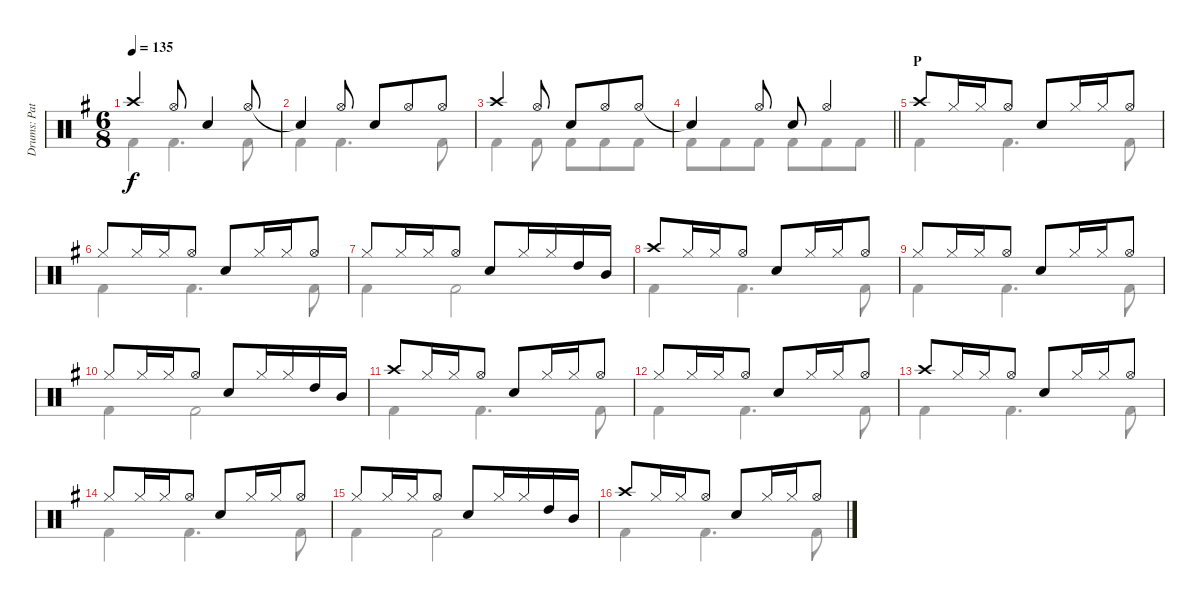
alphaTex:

\track ("Drums: Pat" "Drums: Pat") {instrument percussion}
\staff {score}
\articulation defaults
\voice
\ts (6 8)
\tempo 135
\clef neutral
\ks g "Crash high (hit)".4{dy f} "Hi-Hat (open)".8 "Snare (hit) 2".4 "Hi-Hat (open)".8
|
"Snare (hit)"{t}.4 "Hi-Hat (open)".8 "Snare (hit) 2".8 "Hi-Hat (open)".8 "Hi-Hat (open)".8 |
"Crash high (hit)".4 "Hi-Hat (open)".8 "Snare (hit) 2".8 "Hi-Hat (open)".8 "Hi-Hat (open)".8 |
\barLineRight lightlight "Snare (hit)"{t}.4 "Hi-Hat (open)".8 "Snare (hit) 2".8 "Hi-Hat (open)".4
|
\section ("" "P")
"Crash high (hit)".8 "Hi-Hat (closed)".16 "Hi-Hat (closed)".16 "Hi-Hat (open)".8 "Snare (hit) 2".8 "Hi-Hat (closed)".16 "Hi-Hat (closed)".16 "Hi-Hat (open)".8 |
"Hi-Hat (closed)".8 "Hi-Hat (closed)".16 "Hi-Hat (closed)".16 "Hi-Hat (open)".8 "Snare (hit) 2".8 "Hi-Hat (closed)".16 "Hi-Hat (closed)".16 "Hi-Hat (open)".8 |
"Hi-Hat (closed)".8 "Hi-Hat (closed)".16 "Hi-Hat (closed)".16 "Hi-Hat (open)".8 "Snare (hit) 2".8 "Hi-Hat (closed)".16 "Hi-Hat (closed)".16 "High Tom (hit)".16 "Mid Tom (hit)".16 |
"Crash high (hit)".8 "Hi-Hat (closed)".16 "Hi-Hat (closed)".16 "Hi-Hat (open)".8 "Snare (hit) 2".8 "Hi-Hat (closed)".16 "Hi-Hat (closed)".16 "Hi-Hat (open)".8 |
"Hi-Hat (closed)".8 "Hi-Hat (closed)".16 "Hi-Hat (closed)".16 "Hi-Hat (open)".8 "Snare (hit) 2".8 "Hi-Hat (closed)".16 "Hi-Hat (closed)".16 "Hi-Hat (open)".8 |
"Hi-Hat (closed)".8 "Hi-Hat (closed)".16 "Hi-Hat (closed)".16 "Hi-Hat (open)".8 "Snare (hit) 2".8 "Hi-Hat (closed)".16 "Hi-Hat (closed)".16 "High Tom (hit)".16 "Mid Tom (hit)".16 |
"Crash high (hit)".8 "Hi-Hat (closed)".16 "Hi-Hat (closed)".16 "Hi-Hat (open)".8 "Snare (hit) 2".8 "Hi-Hat (closed)".16 "Hi-Hat (closed)".16 "Hi-Hat (open)".8 |
"Hi-Hat (closed)".8 "Hi-Hat (closed)".16 "Hi-Hat (closed)".16 "Hi-Hat (open)".8 "Snare (hit) 2".8 "Hi-Hat (closed)".16 "Hi-Hat (closed)".16 "Hi-Hat (open)".8 |
"Crash high (hit)".8 "Hi-Hat (closed)".16 "Hi-Hat (closed)".16 "Hi-Hat (open)".8 "Snare (hit) 2".8 "Hi-Hat (closed)".16 "Hi-Hat (closed)".16 "Hi-Hat (open)".8 |
"Hi-Hat (closed)".8 "Hi-Hat (closed)".16 "Hi-Hat (closed)".16 "Hi-Hat (open)".8 "Snare (hit) 2".8 "Hi-Hat (closed)".16 "Hi-Hat (closed)".16 "Hi-Hat (open)".8 |
"Hi-Hat (closed)".8 "Hi-Hat (closed)".16 "Hi-Hat (closed)".16 "Hi-Hat (open)".8 "Snare (hit) 2".8 "Hi-Hat (closed)".16 "Hi-Hat (closed)".16 "High Tom (hit)".16 "Mid Tom (hit)".16 |
"Crash high (hit)".8 "Hi-Hat (closed)".16 "Hi-Hat (closed)".16 "Hi-Hat (open)".8 "Snare (hit) 2".8 "Hi-Hat (closed)".16 "Hi-Hat (closed)".16 "Hi-Hat (open)".8
\voice
\clef neutral
\ottava regular
\simile none
\ks g "Kick (hit) 2".4{dy f} "Kick (hit) 2".4{d} "Kick (hit) 2".8
|
"Kick (hit) 2".4 "Kick (hit) 2".4{d} "Kick (hit) 2".8 |
"Kick (hit) 2".4 "Kick (hit) 2".8 "Kick (hit) 2".8 "Kick (hit) 2".8 "Kick (hit) 2".8 |
\barLineRight lightlight "Kick (hit) 2".8 "Kick (hit) 2".8 "Kick (hit) 2".8 "Kick (hit) 2".8 "Kick (hit) 2".8 "Kick (hit) 2".8
|
"Kick (hit) 2".4 "Kick (hit) 2".4{d} "Kick (hit) 2".8 |
"Kick (hit) 2".4 "Kick (hit) 2".4{d} "Kick (hit) 2".8 |
"Kick (hit) 2".4 "Kick (hit) 2".2 |
"Kick (hit) 2".4 "Kick (hit) 2".4{d} "Kick (hit) 2".8 |
"Kick (hit) 2".4 "Kick (hit) 2".4{d} "Kick (hit) 2".8 |
"Kick (hit) 2".4 "Kick (hit) 2".2 |
"Kick (hit) 2".4 "Kick (hit) 2".4{d} "Kick (hit) 2".8 |
"Kick (hit) 2".4 "Kick (hit) 2".4{d} "Kick (hit) 2".8 |
"Kick (hit) 2".4 "Kick (hit) 2".4{d} "Kick (hit) 2".8 |
"Kick (hit) 2".4 "Kick (hit) 2".4{d} "Kick (hit) 2".8 |
"Kick (hit) 2".4 "Kick (hit) 2".2 |
"Kick (hit) 2".4 "Kick (hit) 2".4{d} "Kick (hit) 2".8
